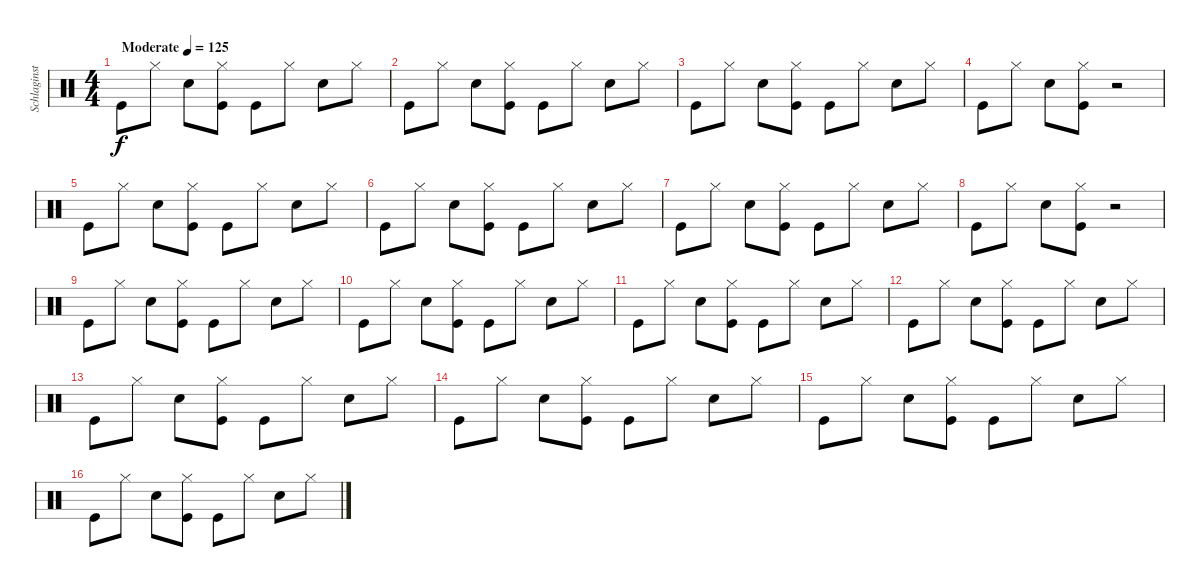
\track ("Schlaginstrumente - Auswahl" "Schlaginst") {instrument percussion}
\staff {score}
\articulation defaults
\ts (4 4)
\tempo (125 "Moderate")
\clef neutral
\ks c "Kick (hit)".8{dy f} "Hi-Hat (closed)".8 "Snare (hit) 2".8
("Hi-Hat (closed)" "Kick (hit)").8 "Kick (hit)".8 "Hi-Hat (closed)".8 "Snare (hit) 2".8 "Hi-Hat (closed)".8 |
"Kick (hit)".8 "Hi-Hat (closed)".8 "Snare (hit) 2".8 ("Hi-Hat (closed)" "Kick (hit)").8 "Kick (hit)".8 "Hi-Hat (closed)".8 "Snare (hit) 2".8 "Hi-Hat (closed)".8 |
"Kick (hit)".8 "Hi-Hat (closed)".8 "Snare (hit) 2".8 ("Hi-Hat (closed)" "Kick (hit)").8 "Kick (hit)".8 "Hi-Hat (closed)".8 "Snare (hit) 2".8 "Hi-Hat (closed)".8 |
"Kick (hit)".8 "Hi-Hat (closed)".8 "Snare (hit) 2".8 ("Hi-Hat (closed)" "Kick (hit)").8 r.2 |
"Kick (hit)".8 "Hi-Hat (closed)".8 "Snare (hit) 2".8 ("Hi-Hat (closed)" "Kick (hit)").8 "Kick (hit)".8 "Hi-Hat (closed)".8 "Snare (hit) 2".8 "Hi-Hat (closed)".8 |
"Kick (hit)".8 "Hi-Hat (closed)".8 "Snare (hit) 2".8 ("Hi-Hat (closed)" "Kick (hit)").8 "Kick (hit)".8 "Hi-Hat (closed)".8 "Snare (hit) 2".8 "Hi-Hat (closed)".8 |
"Kick (hit)".8 "Hi-Hat (closed)".8 "Snare (hit) 2".8 ("Hi-Hat (closed)" "Kick (hit)").8 "Kick (hit)".8 "Hi-Hat (closed)".8 "Snare (hit) 2".8 "Hi-Hat (closed)".8 |
"Kick (hit)".8 "Hi-Hat (closed)".8 "Snare (hit) 2".8 ("Hi-Hat (closed)" "Kick (hit)").8 r.2 |
"Kick (hit)".8 "Hi-Hat (closed)".8 "Snare (hit) 2".8 ("Hi-Hat (closed)" "Kick (hit)").8 "Kick (hit)".8 "Hi-Hat (closed)".8 "Snare (hit) 2".8 "Hi-Hat (closed)".8 |
"Kick (hit)".8 "Hi-Hat (closed)".8 "Snare (hit) 2".8 ("Hi-Hat (closed)" "Kick (hit)").8 "Kick (hit)".8 "Hi-Hat (closed)".8 "Snare (hit) 2".8 "Hi-Hat (closed)".8 |
"Kick (hit)".8 "Hi-Hat (closed)".8 "Snare (hit) 2".8 ("Hi-Hat (closed)" "Kick (hit)").8 "Kick (hit)".8 "Hi-Hat (closed)".8 "Snare (hit) 2".8 "Hi-Hat (closed)".8 |
"Kick (hit)".8 "Hi-Hat (closed)".8 "Snare (hit) 2".8 ("Hi-Hat (closed)" "Kick (hit)").8 "Kick (hit)".8 "Hi-Hat (closed)".8 "Snare (hit) 2".8 "Hi-Hat (closed)".8 |
"Kick (hit)".8 "Hi-Hat (closed)".8 "Snare (hit) 2".8 ("Hi-Hat (closed)" "Kick (hit)").8 "Kick (hit)".8 "Hi-Hat (closed)".8 "Snare (hit) 2".8 "Hi-Hat (closed)".8 |
"Kick (hit)".8 "Hi-Hat (closed)".8 "Snare (hit) 2".8 ("Hi-Hat (closed)" "Kick (hit)").8 "Kick (hit)".8 "Hi-Hat (closed)".8 "Snare (hit) 2".8 "Hi-Hat (closed)".8 |
"Kick (hit)".8 "Hi-Hat (closed)".8 "Snare (hit) 2".8 ("Hi-Hat (closed)" "Kick (hit)").8 "Kick (hit)".8 "Hi-Hat (closed)".8 "Snare (hit) 2".8 "Hi-Hat (closed)".8 |
"Kick (hit)".8 "Hi-Hat (closed)".8 "Snare (hit) 2".8 ("Hi-Hat (closed)" "Kick (hit)").8 "Kick (hit)".8 "Hi-Hat (closed)".8 "Snare (hit) 2".8 "Hi-Hat (closed)".8
